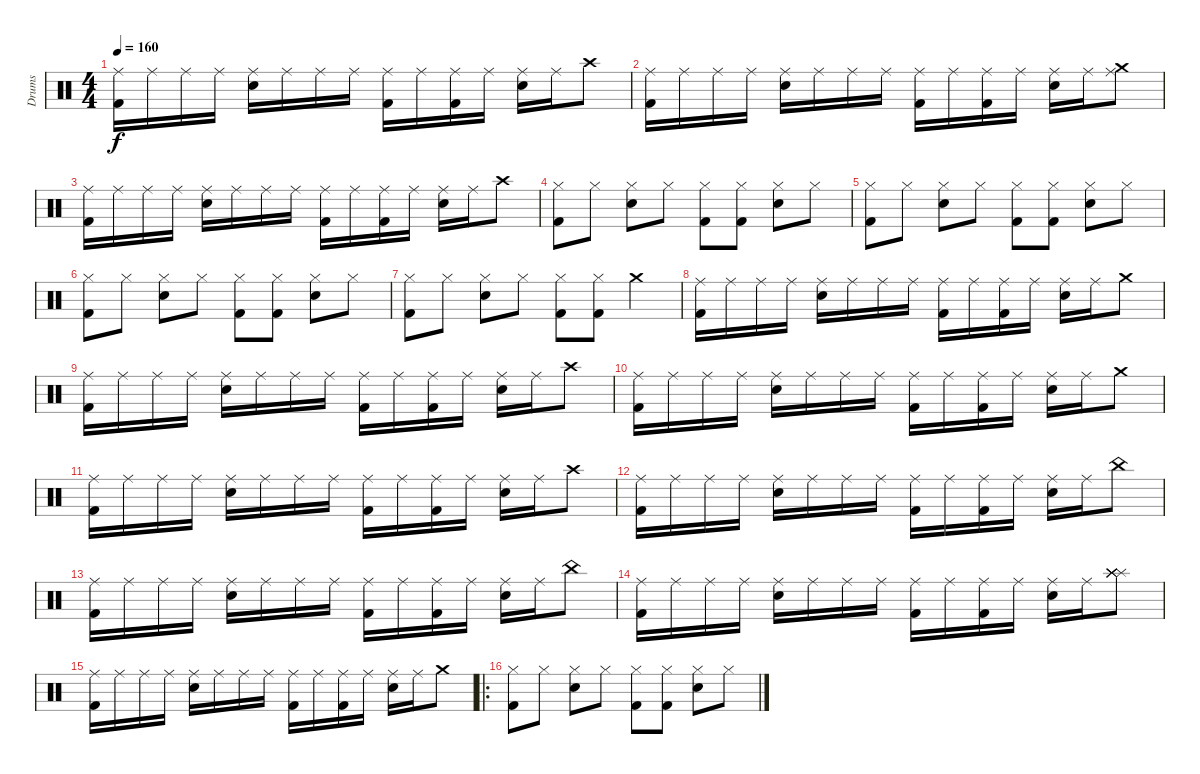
\track ("Drums" "Drums") {instrument percussion}
\staff {score}
\articulation defaults
\ts (4 4)
\tempo 160
\clef neutral
\ks c
("Kick (hit) 2" "Ride (middle)").16{dy f} "Ride (middle)".16 "Ride (middle)".16 "Ride (middle)".16 ("Snare (hit) 2" "Ride (middle)").16 "Ride (middle)".16 "Ride (middle)".16 "Ride (middle)".16 ("Kick (hit) 2" "Ride (middle)").16 "Ride (middle)".16 ("Kick (hit) 2" "Ride (middle)").16 "Ride (middle)".16 ("Snare (hit) 2" "Ride (middle)").16 "Ride (middle)".16 "Crash high (hit)".8 |
("Kick (hit) 2" "Ride (middle)").16 "Ride (middle)".16 "Ride (middle)".16 "Ride (middle)".16 ("Snare (hit) 2" "Ride (middle)").16 "Ride (middle)".16 "Ride (middle)".16 "Ride (middle)".16 ("Kick (hit) 2" "Ride (middle)").16 "Ride (middle)".16 ("Kick (hit) 2" "Ride (middle)").16 "Ride (middle)".16 ("Snare (hit) 2" "Ride (middle)").16 "Ride (middle)".16 ("Crash medium (hit)" "Ride (middle)").8 |
("Kick (hit) 2" "Ride (middle)").16 "Ride (middle)".16 "Ride (middle)".16 "Ride (middle)".16 ("Snare (hit) 2" "Ride (middle)").16 "Ride (middle)".16 "Ride (middle)".16 "Ride (middle)".16 ("Kick (hit) 2" "Ride (middle)").16 "Ride (middle)".16 ("Kick (hit) 2" "Ride (middle)").16 "Ride (middle)".16 ("Snare (hit) 2" "Ride (middle)").16 "Ride (middle)".16 "Crash high (hit)".8 |
("Kick (hit) 2" "Hi-Hat (closed)").8 "Hi-Hat (closed)".8 ("Snare (hit) 2" "Hi-Hat (closed)").8 "Hi-Hat (closed)".8 ("Kick (hit) 2" "Hi-Hat (closed)").8 ("Kick (hit) 2" "Hi-Hat (closed)").8 ("Snare (hit) 2" "Hi-Hat (closed)").8 "Hi-Hat (closed)".8 |
("Kick (hit) 2" "Hi-Hat (closed)").8 "Hi-Hat (closed)".8 ("Snare (hit) 2" "Hi-Hat (closed)").8 "Hi-Hat (closed)".8 ("Kick (hit) 2" "Hi-Hat (closed)").8 ("Kick (hit) 2" "Hi-Hat (closed)").8 ("Snare (hit) 2" "Hi-Hat (closed)").8 "Hi-Hat (closed)".8 |
("Kick (hit) 2" "Hi-Hat (closed)").8 "Hi-Hat (closed)".8 ("Snare (hit) 2" "Hi-Hat (closed)").8 "Hi-Hat (closed)".8 ("Kick (hit) 2" "Hi-Hat (closed)").8 ("Kick (hit) 2" "Hi-Hat (closed)").8 ("Snare (hit) 2" "Hi-Hat (closed)").8 "Hi-Hat (closed)".8 |
("Kick (hit) 2" "Hi-Hat (closed)").8 "Hi-Hat (closed)".8 ("Snare (hit) 2" "Hi-Hat (closed)").8 "Hi-Hat (closed)".8 ("Kick (hit) 2" "Hi-Hat (closed)").8 ("Kick (hit) 2" "Hi-Hat (closed)").8 "Crash medium (hit)".4 |
("Kick (hit) 2" "Ride (middle)").16 "Ride (middle)".16 "Ride (middle)".16 "Ride (middle)".16 ("Snare (hit) 2" "Ride (middle)").16 "Ride (middle)".16 "Ride (middle)".16 "Ride (middle)".16 ("Kick (hit) 2" "Ride (middle)").16 "Ride (middle)".16 ("Kick (hit) 2" "Ride (middle)").16 "Ride (middle)".16 ("Snare (hit) 2" "Ride (middle)").16 "Ride (middle)".16 "Crash medium (hit)".8 |
("Kick (hit) 2" "Ride (middle)").16 "Ride (middle)".16 "Ride (middle)".16 "Ride (middle)".16 ("Snare (hit) 2" "Ride (middle)").16 "Ride (middle)".16 "Ride (middle)".16 "Ride (middle)".16 ("Kick (hit) 2" "Ride (middle)").16 "Ride (middle)".16 ("Kick (hit) 2" "Ride (middle)").16 "Ride (middle)".16 ("Snare (hit) 2" "Ride (middle)").16 "Ride (middle)".16 "Crash high (hit)".8 |
("Kick (hit) 2" "Ride (middle)").16 "Ride (middle)".16 "Ride (middle)".16 "Ride (middle)".16 ("Snare (hit) 2" "Ride (middle)").16 "Ride (middle)".16 "Ride (middle)".16 "Ride (middle)".16 ("Kick (hit) 2" "Ride (middle)").16 "Ride (middle)".16 ("Kick (hit) 2" "Ride (middle)").16 "Ride (middle)".16 ("Snare (hit) 2" "Ride (middle)").16 "Ride (middle)".16 "Crash medium (hit)".8 |
("Kick (hit) 2" "Ride (middle)").16 "Ride (middle)".16 "Ride (middle)".16 "Ride (middle)".16 ("Snare (hit) 2" "Ride (middle)").16 "Ride (middle)".16 "Ride (middle)".16 "Ride (middle)".16 ("Kick (hit) 2" "Ride (middle)").16 "Ride (middle)".16 ("Kick (hit) 2" "Ride (middle)").16 "Ride (middle)".16 ("Snare (hit) 2" "Ride (middle)").16 "Ride (middle)".16 "Crash high (hit)".8 |
("Kick (hit) 2" "Ride (middle)").16 "Ride (middle)".16 "Ride (middle)".16 "Ride (middle)".16 ("Snare (hit) 2" "Ride (middle)").16 "Ride (middle)".16 "Ride (middle)".16 "Ride (middle)".16 ("Kick (hit) 2" "Ride (middle)").16 "Ride (middle)".16 ("Kick (hit) 2" "Ride (middle)").16 "Ride (middle)".16 ("Snare (hit) 2" "Ride (middle)").16 "Ride (middle)".16 "China (hit)".8 |
("Kick (hit) 2" "Ride (middle)").16 "Ride (middle)".16 "Ride (middle)".16 "Ride (middle)".16 ("Snare (hit) 2" "Ride (middle)").16 "Ride (middle)".16 "Ride (middle)".16 "Ride (middle)".16 ("Kick (hit) 2" "Ride (middle)").16 "Ride (middle)".16 ("Kick (hit) 2" "Ride (middle)").16 "Ride (middle)".16 ("Snare (hit) 2" "Ride (middle)").16 "Ride (middle)".16 "China (hit)".8 |
("Kick (hit) 2" "Ride (middle)").16 "Ride (middle)".16 "Ride (middle)".16 "Ride (middle)".16 ("Snare (hit) 2" "Ride (middle)").16 "Ride (middle)".16 "Ride (middle)".16 "Ride (middle)".16 ("Kick (hit) 2" "Ride (middle)").16 "Ride (middle)".16 ("Kick (hit) 2" "Ride (middle)").16 "Ride (middle)".16 ("Snare (hit) 2" "Ride (middle)").16 "Ride (middle)".16 ("Splash (hit)" "Splash (hit)" "Splash (hit)" "Splash (hit)" "Splash (hit)" "Splash (hit)").8 |
("Kick (hit) 2" "Ride (middle)").16 "Ride (middle)".16 "Ride (middle)".16 "Ride (middle)".16 ("Snare (hit) 2" "Ride (middle)").16 "Ride (middle)".16 "Ride (middle)".16 "Ride (middle)".16 ("Kick (hit) 2" "Ride (middle)").16 "Ride (middle)".16 ("Kick (hit) 2" "Ride (middle)").16 "Ride (middle)".16 ("Snare (hit) 2" "Ride (middle)").16 "Ride (middle)".16 "Crash medium (hit)".8 |
\ro
("Kick (hit) 2" "Hi-Hat (closed)").8 "Hi-Hat (closed)".8 ("Snare (hit) 2" "Hi-Hat (closed)").8 "Hi-Hat (closed)".8 ("Kick (hit) 2" "Hi-Hat (closed)").8 ("Kick (hit) 2" "Hi-Hat (closed)").8 ("Snare (hit) 2" "Hi-Hat (closed)").8 "Hi-Hat (closed)".8
